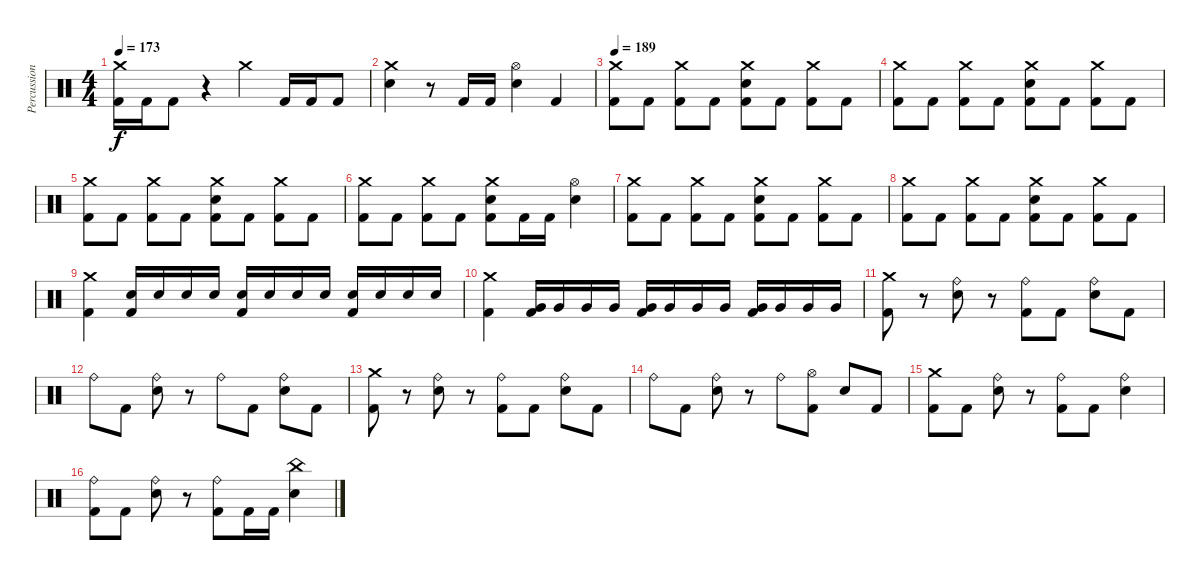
\track ("Percussion" "Percussion") {instrument percussion}
\staff {score}
\articulation defaults
\ts (4 4)
\tempo 173
\clef neutral
\ks c
("Crash medium (hit)" "Kick (hit) 2").16{dy f} "Kick (hit) 2".16 "Kick (hit) 2".8 r.4 "Crash medium (hit)".4 "Kick (hit) 2".16 "Kick (hit) 2".16 "Kick (hit) 2".8 |
("Crash medium (hit)" "Snare (hit) 2").4 r.8 "Kick (hit) 2".16 "Kick (hit) 2".16 ("Hi-Hat (open)" "Snare (hit) 2").4 "Kick (hit) 2".4 |
\tempo 189
("Crash medium (hit)" "Kick (hit) 2").8 "Kick (hit) 2".8 ("Crash medium (hit)" "Kick (hit) 2").8 "Kick (hit) 2".8 ("Crash medium (hit)" "Snare (hit) 2" "Kick (hit) 2").8 "Kick (hit) 2".8 ("Crash medium (hit)" "Kick (hit) 2").8 "Kick (hit) 2".8 |
("Crash medium (hit)" "Kick (hit) 2").8 "Kick (hit) 2".8 ("Crash medium (hit)" "Kick (hit) 2").8 "Kick (hit) 2".8 ("Crash medium (hit)" "Snare (hit) 2" "Kick (hit) 2").8 "Kick (hit) 2".8 ("Crash medium (hit)" "Kick (hit) 2").8 "Kick (hit) 2".8 |
("Crash medium (hit)" "Kick (hit) 2").8 "Kick (hit) 2".8 ("Crash medium (hit)" "Kick (hit) 2").8 "Kick (hit) 2".8 ("Crash medium (hit)" "Snare (hit) 2" "Kick (hit) 2").8 "Kick (hit) 2".8 ("Crash medium (hit)" "Kick (hit) 2").8 "Kick (hit) 2".8 |
("Crash medium (hit)" "Kick (hit) 2").8 "Kick (hit) 2".8 ("Crash medium (hit)" "Kick (hit) 2").8 "Kick (hit) 2".8 ("Crash medium (hit)" "Snare (hit) 2" "Kick (hit) 2").8 "Kick (hit) 2".16 "Kick (hit) 2".16 ("Hi-Hat (open)" "Snare (hit) 2").4 |
("Crash medium (hit)" "Kick (hit) 2").8 "Kick (hit) 2".8 ("Crash medium (hit)" "Kick (hit) 2").8 "Kick (hit) 2".8 ("Crash medium (hit)" "Snare (hit) 2" "Kick (hit) 2").8 "Kick (hit) 2".8 ("Crash medium (hit)" "Kick (hit) 2").8 "Kick (hit) 2".8 |
("Crash medium (hit)" "Kick (hit) 2").8 "Kick (hit) 2".8 ("Crash medium (hit)" "Kick (hit) 2").8 "Kick (hit) 2".8 ("Crash medium (hit)" "Snare (hit) 2" "Kick (hit) 2").8 "Kick (hit) 2".8 ("Crash medium (hit)" "Kick (hit) 2").8 "Kick (hit) 2".8 |
("Crash medium (hit)" "Kick (hit) 2").4 ("Snare (hit) 2" "Kick (hit) 2").16 "Snare (hit) 2".16 "Snare (hit) 2".16 "Snare (hit) 2".16 ("Snare (hit) 2" "Kick (hit) 2").16 "Snare (hit) 2".16 "Snare (hit) 2".16 "Snare (hit) 2".16 ("Snare (hit) 2" "Kick (hit) 2").16 "Snare (hit) 2".16 "Snare (hit) 2".16 "Snare (hit) 2".16 |
("Crash medium (hit)" "Kick (hit) 2").4 ("Very Low Tom (hit)" "Kick (hit) 2").16 "Very Low Tom (hit)".16 "Very Low Tom (hit)".16 "Very Low Tom (hit)".16 ("Very Low Tom (hit)" "Kick (hit) 2").16 "Very Low Tom (hit)".16 "Very Low Tom (hit)".16 "Very Low Tom (hit)".16 ("Very Low Tom (hit)" "Kick (hit) 2").16 "Very Low Tom (hit)".16 "Very Low Tom (hit)".16 "Very Low Tom (hit)".16 |
("Crash medium (hit)" "Kick (hit) 2").8 r.8 ("Ride (bell)" "Snare (hit) 2").8 r.8 ("Ride (bell)" "Kick (hit) 2").8 "Kick (hit) 2".8 ("Ride (bell)" "Snare (hit) 2").8 "Kick (hit) 2".8 |
"Ride (bell)".8 "Kick (hit) 2".8 ("Ride (bell)" "Snare (hit) 2").8 r.8 "Ride (bell)".8 "Kick (hit) 2".8 ("Ride (bell)" "Snare (hit) 2").8 "Kick (hit) 2".8 |
("Crash medium (hit)" "Kick (hit) 2").8 r.8 ("Ride (bell)" "Snare (hit) 2").8 r.8 ("Ride (bell)" "Kick (hit) 2").8 "Kick (hit) 2".8 ("Ride (bell)" "Snare (hit) 2").8 "Kick (hit) 2".8 |
"Ride (bell)".8 "Kick (hit) 2".8 ("Ride (bell)" "Snare (hit) 2").8 r.8 "Ride (bell)".8 ("Hi-Hat (open)" "Kick (hit) 2").8 "Snare (hit) 2".8 "Kick (hit) 2".8 |
("Crash medium (hit)" "Kick (hit) 2").8 "Kick (hit) 2".8 ("Ride (bell)" "Snare (hit) 2").8 r.8 ("Ride (bell)" "Kick (hit) 2").8 "Kick (hit) 2".8 ("Ride (bell)" "Snare (hit) 2").4 |
("Ride (bell)" "Kick (hit) 2").8 "Kick (hit) 2".8 ("Ride (bell)" "Snare (hit) 2").8 r.8 ("Ride (bell)" "Kick (hit) 2").8 "Kick (hit) 2".16 "Kick (hit) 2".16 ("China (hit)" "Snare (hit) 2").4
